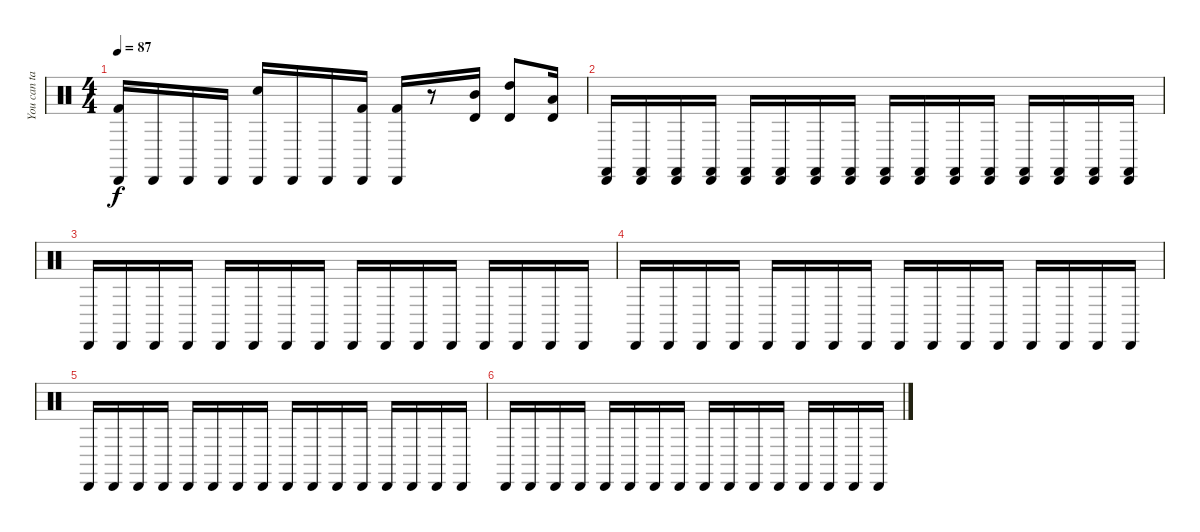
\track ("You can take full" "You can ta") {solo instrument percussion}
\staff {score}
\articulation defaults
\ts (4 4)
\tempo 87
\clef neutral
\ks c
("Kick (hit) 2" "Cabasa (hit)").16{dy f} "Cabasa (hit)".16 "Cabasa (hit)".16 "Cabasa (hit)".16 ("Hand Clap (hit)" "Cabasa (hit)").16 "Cabasa (hit)".16 "Cabasa (hit)".16 ("Kick (hit) 2" "Cabasa (hit)").16 ("Kick (hit) 2" "Cabasa (hit)").16 r.8 ("Mid Tom (hit)" "Timbale high (hit)").16 ("High Tom (hit)" "Timbale high (hit)").8 ("Low Tom (hit)" "Timbale high (hit)").16 |
("Cabasa (hit)" "Castanets (hit)").16 ("Cabasa (hit)" "Castanets (hit)").16 ("Cabasa (hit)" "Castanets (hit)").16 ("Cabasa (hit)" "Castanets (hit)").16 ("Cabasa (hit)" "Castanets (hit)").16 ("Cabasa (hit)" "Castanets (hit)").16 ("Cabasa (hit)" "Castanets (hit)").16 ("Cabasa (hit)" "Castanets (hit)").16 ("Cabasa (hit)" "Castanets (hit)").16 ("Cabasa (hit)" "Castanets (hit)").16 ("Cabasa (hit)" "Castanets (hit)").16 ("Cabasa (hit)" "Castanets (hit)").16 ("Cabasa (hit)" "Castanets (hit)").16 ("Cabasa (hit)" "Castanets (hit)").16 ("Cabasa (hit)" "Castanets (hit)").16 ("Cabasa (hit)" "Castanets (hit)").16 |
"Cabasa (hit)".16 "Cabasa (hit)".16 "Cabasa (hit)".16 "Cabasa (hit)".16 "Cabasa (hit)".16 "Cabasa (hit)".16 "Cabasa (hit)".16 "Cabasa (hit)".16 "Cabasa (hit)".16 "Cabasa (hit)".16 "Cabasa (hit)".16 "Cabasa (hit)".16 "Cabasa (hit)".16 "Cabasa (hit)".16 "Cabasa (hit)".16 "Cabasa (hit)".16 |
"Cabasa (hit)".16 "Cabasa (hit)".16 "Cabasa (hit)".16 "Cabasa (hit)".16 "Cabasa (hit)".16 "Cabasa (hit)".16 "Cabasa (hit)".16 "Cabasa (hit)".16 "Cabasa (hit)".16 "Cabasa (hit)".16 "Cabasa (hit)".16 "Cabasa (hit)".16 "Cabasa (hit)".16 "Cabasa (hit)".16 "Cabasa (hit)".16 "Cabasa (hit)".16 |
"Cabasa (hit)".16 "Cabasa (hit)".16 "Cabasa (hit)".16 "Cabasa (hit)".16 "Cabasa (hit)".16 "Cabasa (hit)".16 "Cabasa (hit)".16 "Cabasa (hit)".16 "Cabasa (hit)".16 "Cabasa (hit)".16 "Cabasa (hit)".16 "Cabasa (hit)".16 "Cabasa (hit)".16 "Cabasa (hit)".16 "Cabasa (hit)".16 "Cabasa (hit)".16 |
"Cabasa (hit)".16 "Cabasa (hit)".16 "Cabasa (hit)".16 "Cabasa (hit)".16 "Cabasa (hit)".16 "Cabasa (hit)".16 "Cabasa (hit)".16 "Cabasa (hit)".16 "Cabasa (hit)".16 "Cabasa (hit)".16 "Cabasa (hit)".16 "Cabasa (hit)".16 "Cabasa (hit)".16 "Cabasa (hit)".16 "Cabasa (hit)".16 "Cabasa (hit)".16
